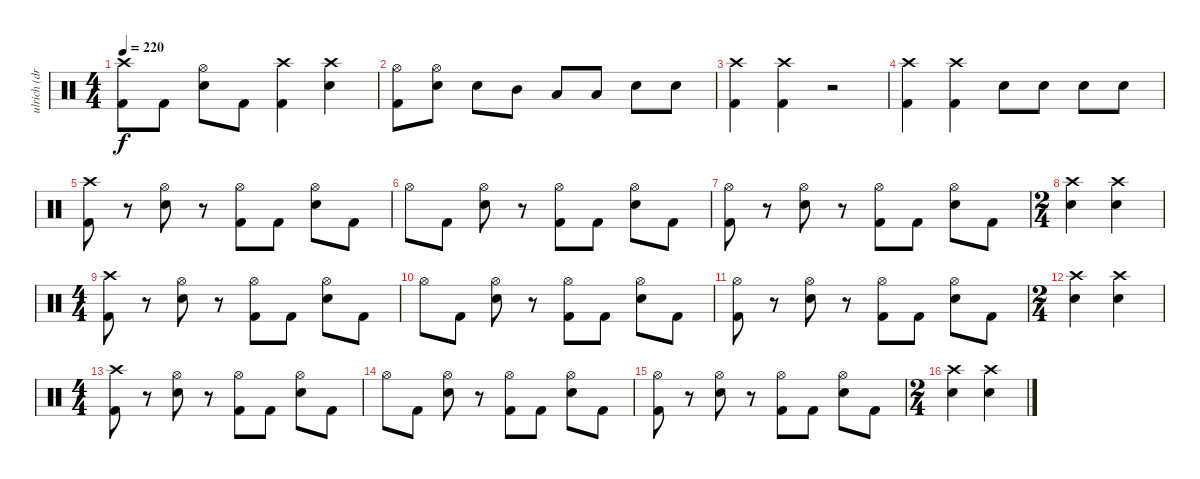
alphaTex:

\track ("ulrich (drums)" "ulrich (dr") {instrument percussion}
\staff {score}
\articulation defaults
\ts (4 4)
\tempo 220
\clef neutral
\ks c
("Crash high (hit)" "Kick (hit) 2").8{dy f} "Kick (hit) 2".8 ("Hi-Hat (open)" "Snare (hit) 2").8 "Kick (hit) 2".8 ("Crash high (hit)" "Kick (hit) 2").4 ("Crash high (hit)" "Snare (hit) 2").4 |
("Hi-Hat (open)" "Kick (hit) 2").8 ("Hi-Hat (open)" "Snare (hit) 2").8 "Snare (hit) 2".8 "Mid Tom (hit)".8 "Low Tom (hit)".8 "Low Tom (hit)".8 "Snare (hit) 2".8 "Snare (hit) 2".8 |
("Crash high (hit)" "Kick (hit) 2").4 ("Crash high (hit)" "Kick (hit) 2").4 r.2 |
("Crash high (hit)" "Kick (hit) 2").4 ("Crash high (hit)" "Kick (hit) 2").4 "Snare (hit) 2".8 "Snare (hit) 2".8 "Snare (hit) 2".8 "Snare (hit) 2".8 |
("Crash high (hit)" "Kick (hit) 2").8 r.8 ("Hi-Hat (open)" "Snare (hit) 2").8 r.8 ("Hi-Hat (open)" "Kick (hit) 2").8 "Kick (hit) 2".8 ("Hi-Hat (open)" "Snare (hit) 2").8 "Kick (hit) 2".8 |
"Hi-Hat (open)".8 "Kick (hit) 2".8 ("Hi-Hat (open)" "Snare (hit) 2").8 r.8 ("Hi-Hat (open)" "Kick (hit) 2").8 "Kick (hit) 2".8 ("Hi-Hat (open)" "Snare (hit) 2").8 "Kick (hit) 2".8 |
("Hi-Hat (open)" "Kick (hit) 2").8 r.8 ("Hi-Hat (open)" "Snare (hit) 2").8 r.8 ("Hi-Hat (open)" "Kick (hit) 2").8 "Kick (hit) 2".8 ("Hi-Hat (open)" "Snare (hit) 2").8 "Kick (hit) 2".8 |
\ts (2 4)
("Crash high (hit)" "Snare (hit) 2").4 ("Crash high (hit)" "Snare (hit) 2").4 |
\ts (4 4)
("Crash high (hit)" "Kick (hit) 2").8 r.8 ("Hi-Hat (open)" "Snare (hit) 2").8 r.8 ("Hi-Hat (open)" "Kick (hit) 2").8 "Kick (hit) 2".8 ("Hi-Hat (open)" "Snare (hit) 2").8 "Kick (hit) 2".8 |
"Hi-Hat (open)".8 "Kick (hit) 2".8 ("Hi-Hat (open)" "Snare (hit) 2").8 r.8 ("Hi-Hat (open)" "Kick (hit) 2").8 "Kick (hit) 2".8 ("Hi-Hat (open)" "Snare (hit) 2").8 "Kick (hit) 2".8 |
("Hi-Hat (open)" "Kick (hit) 2").8 r.8 ("Hi-Hat (open)" "Snare (hit) 2").8 r.8 ("Hi-Hat (open)" "Kick (hit) 2").8 "Kick (hit) 2".8 ("Hi-Hat (open)" "Snare (hit) 2").8 "Kick (hit) 2".8 |
\ts (2 4)
("Crash high (hit)" "Snare (hit) 2").4 ("Crash high (hit)" "Snare (hit) 2").4 |
\ts (4 4)
("Crash high (hit)" "Kick (hit) 2").8 r.8 ("Hi-Hat (open)" "Snare (hit) 2").8 r.8 ("Hi-Hat (open)" "Kick (hit) 2").8 "Kick (hit) 2".8 ("Hi-Hat (open)" "Snare (hit) 2").8 "Kick (hit) 2".8 |
"Hi-Hat (open)".8 "Kick (hit) 2".8 ("Hi-Hat (open)" "Snare (hit) 2").8 r.8 ("Hi-Hat (open)" "Kick (hit) 2").8 "Kick (hit) 2".8 ("Hi-Hat (open)" "Snare (hit) 2").8 "Kick (hit) 2".8 |
("Hi-Hat (open)" "Kick (hit) 2").8 r.8 ("Hi-Hat (open)" "Snare (hit) 2").8 r.8 ("Hi-Hat (open)" "Kick (hit) 2").8 "Kick (hit) 2".8 ("Hi-Hat (open)" "Snare (hit) 2").8 "Kick (hit) 2".8 |
\ts (2 4)
("Crash high (hit)" "Snare (hit) 2").4 ("Crash high (hit)" "Snare (hit) 2").4
